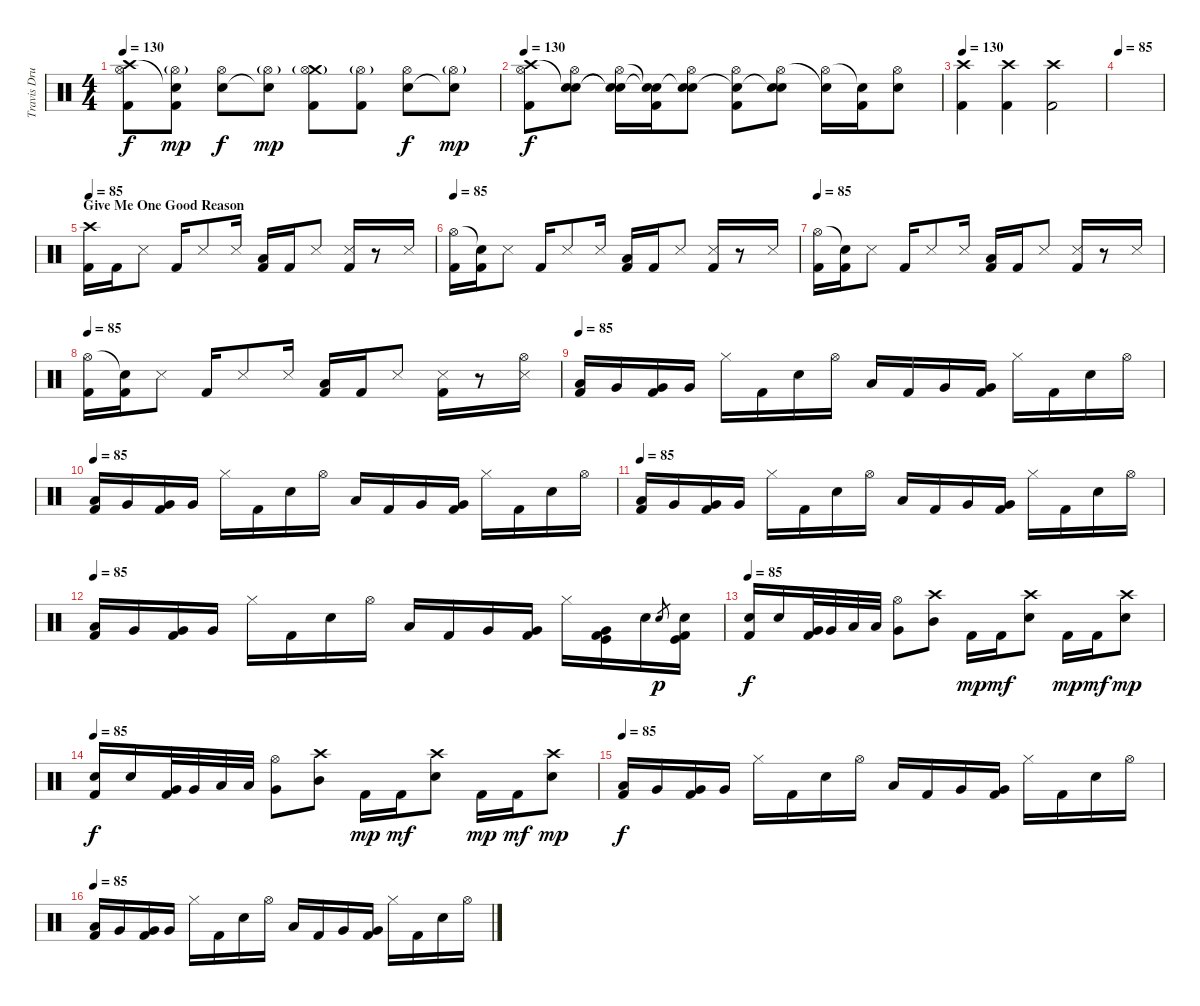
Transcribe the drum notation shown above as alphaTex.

\track ("Travis Drums" "Travis Dru") {instrument percussion}
\staff {score}
\articulation defaults
\ts (4 4)
\tempo 130
\clef neutral
\ks c
("Crash high (hit)" "Hi-Hat (open)" "Kick (hit) 2").8{dy f} ("Snare (hit)"{t} "Hi-Hat (open)"{g} "Kick (hit) 2").8{dy mp} ("Hi-Hat (open)" "Electric Snare (hit)").8{dy f} ("Hi-Hat (open)"{g} "Snare (hit)"{t}).8{dy mp} ("Crash medium (hit)"{g} "Hi-Hat (open)" "Kick (hit) 2").8 ("Hi-Hat (open)"{g} "Kick (hit) 2").8 ("Hi-Hat (open)" "Electric Snare (hit)").8{dy f} ("Hi-Hat (open)"{g} "Snare (hit)"{t}).8{dy mp} |
\tempo 130
("Crash high (hit)" "Hi-Hat (open)" "Kick (hit) 2").8{dy f} ("Snare (hit)"{t} "Hi-Hat (open)" "Electric Snare (hit)").8 ("Snare (hit)"{t} "Hi-Hat (open)" "Snare (hit)"{t}).16 ("Snare (hit)"{t} "Snare (hit)"{t} "Kick (hit) 2").16 ("Snare (hit)"{t} "Hi-Hat (open)" "Electric Snare (hit)").8 ("Snare (hit)"{t} "Hi-Hat (open)" "Kick (hit) 2").8 ("Snare (hit)"{t} "Hi-Hat (open)" "Electric Snare (hit)").8 ("Hi-Hat (open)" "Snare (hit)"{t}).16 ("Snare (hit)"{t} "Kick (hit) 2").16 ("Hi-Hat (open)" "Electric Snare (hit)").8 |
\tempo 130
("Kick (hit) 2" "Crash high (hit)").4 ("Kick (hit) 2" "Crash high (hit)").4 ("Kick (hit) 2" "Crash high (hit)").2 |
\tempo 85
|
\section ("" "Give Me One Good Reason")
\tempo 85
("Crash high (hit)" "Kick (hit) 2").16 "Kick (hit) 2".16 "Snare (side stick) 3".8 "Kick (hit) 2".16 "Snare (side stick) 3".8 "Snare (side stick) 3".16 ("Low Floor Tom (hit)" "Kick (hit) 2").16 "Kick (hit) 2".16 "Snare (side stick) 3".8 ("Snare (side stick) 3" "Kick (hit) 2").16 r.8 "Snare (side stick) 3".16 |
\tempo 85
("Hi-Hat (open)" "Kick (hit) 2").16 ("Snare (hit)"{t} "Kick (hit) 2").16 "Snare (side stick) 3".8 "Kick (hit) 2".16 "Snare (side stick) 3".8 "Snare (side stick) 3".16 ("Low Floor Tom (hit)" "Kick (hit) 2").16 "Kick (hit) 2".16 "Snare (side stick) 3".8 ("Snare (side stick) 3" "Kick (hit) 2").16 r.8 "Snare (side stick) 3".16 |
\tempo 85
("Hi-Hat (open)" "Kick (hit) 2").16 ("Snare (hit)"{t} "Kick (hit) 2").16 "Snare (side stick) 3".8 "Kick (hit) 2".16 "Snare (side stick) 3".8 "Snare (side stick) 3".16 ("Low Floor Tom (hit)" "Kick (hit) 2").16 "Kick (hit) 2".16 "Snare (side stick) 3".8 ("Snare (side stick) 3" "Kick (hit) 2").16 r.8 "Snare (side stick) 3".16 |
\tempo 85
("Hi-Hat (open)" "Kick (hit) 2").16 ("Snare (hit)"{t} "Kick (hit) 2").16 "Snare (side stick) 3".8 "Kick (hit) 2".16 "Snare (side stick) 3".8 "Snare (side stick) 3".16 ("Low Floor Tom (hit)" "Kick (hit) 2").16 "Kick (hit) 2".16 "Snare (side stick) 3".8 ("Snare (side stick) 3" "Kick (hit) 2").16 r.8 ("Hi-Hat (open)" "Snare (side stick) 3").16 |
\tempo 85
("Low Tom (hit)" "Kick (hit) 2").16 "Very Low Tom (hit)".16 ("Very Low Tom (hit)" "Kick (hit) 2").16 "Very Low Tom (hit)".16 "Hi-Hat (closed)".16 "Kick (hit) 2".16 "Electric Snare (hit)".16 "Hi-Hat (open)".16 "Low Tom (hit)".16 "Kick (hit) 2".16 "Very Low Tom (hit)".16 ("Very Low Tom (hit)" "Kick (hit) 2").16 "Hi-Hat (closed)".16 "Kick (hit) 2".16 "Electric Snare (hit)".16 "Hi-Hat (open)".16 |
\tempo 85
("Low Tom (hit)" "Kick (hit) 2").16 "Very Low Tom (hit)".16 ("Very Low Tom (hit)" "Kick (hit) 2").16 "Very Low Tom (hit)".16 "Hi-Hat (closed)".16 "Kick (hit) 2".16 "Electric Snare (hit)".16 "Hi-Hat (open)".16 "Low Tom (hit)".16 "Kick (hit) 2".16 "Very Low Tom (hit)".16 ("Very Low Tom (hit)" "Kick (hit) 2").16 "Hi-Hat (closed)".16 "Kick (hit) 2".16 "Electric Snare (hit)".16 "Hi-Hat (open)".16 |
\tempo 85
("Low Tom (hit)" "Kick (hit) 2").16 "Very Low Tom (hit)".16 ("Very Low Tom (hit)" "Kick (hit) 2").16 "Very Low Tom (hit)".16 "Hi-Hat (closed)".16 "Kick (hit) 2".16 "Electric Snare (hit)".16 "Hi-Hat (open)".16 "Low Tom (hit)".16 "Kick (hit) 2".16 "Very Low Tom (hit)".16 ("Very Low Tom (hit)" "Kick (hit) 2").16 "Hi-Hat (closed)".16 "Kick (hit) 2".16 "Electric Snare (hit)".16 "Hi-Hat (open)".16 |
\tempo 85
("Low Tom (hit)" "Kick (hit) 2").16 "Very Low Tom (hit)".16 ("Very Low Tom (hit)" "Kick (hit) 2").16 "Very Low Tom (hit)".16 "Hi-Hat (closed)".16 "Kick (hit) 2".16 "Electric Snare (hit)".16 "Hi-Hat (open)".16 "Low Tom (hit)".16 "Kick (hit) 2".16 "Very Low Tom (hit)".16 ("Very Low Tom (hit)" "Kick (hit) 2").16 "Hi-Hat (closed)".16 ("Very Low Tom (hit)" "Kick (hit)" "Kick (hit) 2").16 "Electric Snare (hit)".16 "Snare (hit) 2".8{gr dy p} ("Electric Snare (hit)" "Kick (hit)" "Kick (hit) 2").16 |
\tempo 85
("Electric Snare (hit)" "Kick (hit) 2").16{dy f} "Electric Snare (hit)".16 ("Very Low Tom (hit)" "Kick (hit) 2").32 "Very Low Tom (hit)".32 "Low Floor Tom (hit)".32 "Low Floor Tom (hit)".32 ("Hi-Hat (open)" "Very Low Tom (hit)").8 ("Crash high (hit)" "Mid Tom (hit)").8 "Kick (hit) 2".16{dy mp} "Kick (hit) 2".16{dy mf} ("Crash high (hit)" "Electric Snare (hit)").8 "Kick (hit) 2".16{dy mp} "Kick (hit) 2".16{dy mf} ("Crash high (hit)" "Electric Snare (hit)").8{dy mp} |
\tempo 85
("Electric Snare (hit)" "Kick (hit) 2").16{dy f} "Electric Snare (hit)".16 ("Very Low Tom (hit)" "Kick (hit) 2").32 "Very Low Tom (hit)".32 "Low Floor Tom (hit)".32 "Low Floor Tom (hit)".32 ("Hi-Hat (open)" "Very Low Tom (hit)").8 ("Crash high (hit)" "Mid Tom (hit)").8 "Kick (hit) 2".16{dy mp} "Kick (hit) 2".16{dy mf} ("Crash high (hit)" "Electric Snare (hit)").8 "Kick (hit) 2".16{dy mp} "Kick (hit) 2".16{dy mf} ("Crash high (hit)" "Electric Snare (hit)").8{dy mp} |
\tempo 85
("Low Tom (hit)" "Kick (hit) 2").16{dy f} "Very Low Tom (hit)".16 ("Very Low Tom (hit)" "Kick (hit) 2").16 "Very Low Tom (hit)".16 "Hi-Hat (closed)".16 "Kick (hit) 2".16 "Electric Snare (hit)".16 "Hi-Hat (open)".16 "Low Tom (hit)".16 "Kick (hit) 2".16 "Very Low Tom (hit)".16 ("Very Low Tom (hit)" "Kick (hit) 2").16 "Hi-Hat (closed)".16 "Kick (hit) 2".16 "Electric Snare (hit)".16 "Hi-Hat (open)".16 |
\tempo 85
("Low Tom (hit)" "Kick (hit) 2").16 "Very Low Tom (hit)".16 ("Very Low Tom (hit)" "Kick (hit) 2").16 "Very Low Tom (hit)".16 "Hi-Hat (closed)".16 "Kick (hit) 2".16 "Electric Snare (hit)".16 "Hi-Hat (open)".16 "Low Tom (hit)".16 "Kick (hit) 2".16 "Very Low Tom (hit)".16 ("Very Low Tom (hit)" "Kick (hit) 2").16 "Hi-Hat (closed)".16 "Kick (hit) 2".16 "Electric Snare (hit)".16 "Hi-Hat (open)".16
